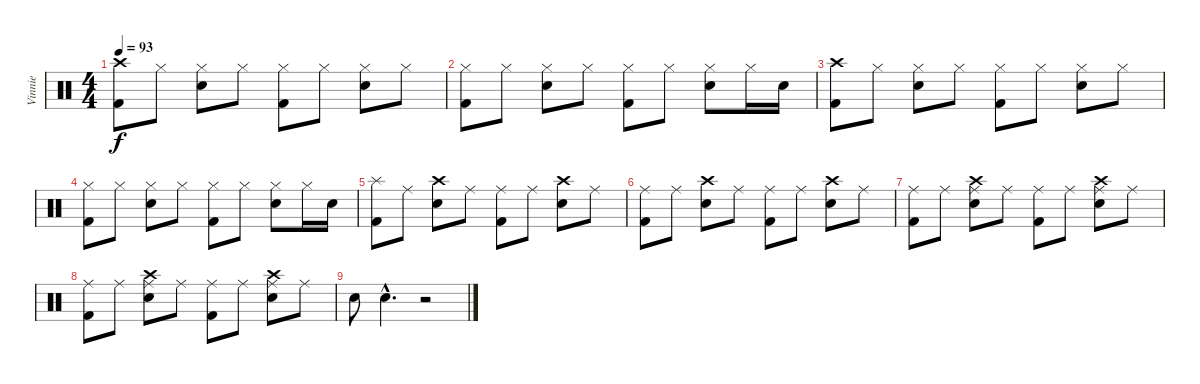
\track ("Vinnie" "Vinnie") {instrument percussion}
\staff {score}
\articulation defaults
\ts (4 4)
\tempo 93
\clef neutral
\ks c
("Crash high (hit)" "Kick (hit) 2").8{dy f} "Hi-Hat (closed)".8 ("Hi-Hat (closed)" "Electric Snare (hit)").8 "Hi-Hat (closed)".8 ("Hi-Hat (closed)" "Kick (hit) 2").8 "Hi-Hat (closed)".8 ("Hi-Hat (closed)" "Electric Snare (hit)").8 "Hi-Hat (closed)".8 |
("Hi-Hat (closed)" "Kick (hit) 2").8 "Hi-Hat (closed)".8 ("Hi-Hat (closed)" "Electric Snare (hit)").8 "Hi-Hat (closed)".8 ("Hi-Hat (closed)" "Kick (hit) 2").8 "Hi-Hat (closed)".8 ("Hi-Hat (closed)" "Electric Snare (hit)").8 "Hi-Hat (closed)".16 "Electric Snare (hit)".16 |
("Crash high (hit)" "Kick (hit) 2").8 "Hi-Hat (closed)".8 ("Hi-Hat (closed)" "Electric Snare (hit)").8 "Hi-Hat (closed)".8 ("Hi-Hat (closed)" "Kick (hit) 2").8 "Hi-Hat (closed)".8 ("Hi-Hat (closed)" "Electric Snare (hit)").8 "Hi-Hat (closed)".8 |
("Hi-Hat (closed)" "Kick (hit) 2").8 "Hi-Hat (closed)".8 ("Hi-Hat (closed)" "Electric Snare (hit)").8 "Hi-Hat (closed)".8 ("Hi-Hat (closed)" "Kick (hit) 2").8 "Hi-Hat (closed)".8 ("Hi-Hat (closed)" "Electric Snare (hit)").8 "Hi-Hat (closed)".16 "Electric Snare (hit)".16 |
("Splash (hit)" "Kick (hit) 2").8 "Ride (middle)".8 ("Crash high (hit)" "Electric Snare (hit)").8 "Ride (middle)".8 ("Ride (middle)" "Kick (hit) 2").8 "Ride (middle)".8 ("Crash high (hit)" "Electric Snare (hit)").8 "Ride (middle)".8 |
("Ride (middle)" "Kick (hit) 2").8 "Ride (middle)".8 ("Crash high (hit)" "Electric Snare (hit)").8 "Ride (middle)".8 ("Ride (middle)" "Kick (hit) 2").8 "Ride (middle)".8 ("Crash high (hit)" "Electric Snare (hit)").8 "Ride (middle)".8 |
("Ride (middle)" "Kick (hit) 2").8 "Ride (middle)".8 ("Crash high (hit)" "Ride (middle)" "Electric Snare (hit)").8 "Ride (middle)".8 ("Ride (middle)" "Kick (hit) 2").8 "Ride (middle)".8 ("Crash high (hit)" "Ride (middle)" "Electric Snare (hit)").8 "Ride (middle)".8 |
("Ride (middle)" "Kick (hit) 2").8 "Ride (middle)".8 ("Crash high (hit)" "Ride (middle)" "Electric Snare (hit)").8 "Ride (middle)".8 ("Ride (middle)" "Kick (hit) 2").8 "Ride (middle)".8 ("Crash high (hit)" "Ride (middle)" "Electric Snare (hit)").8 "Ride (middle)".8 |
"Electric Snare (hit)".8 "Electric Snare (hit)"{hac}.4{d} r.2
